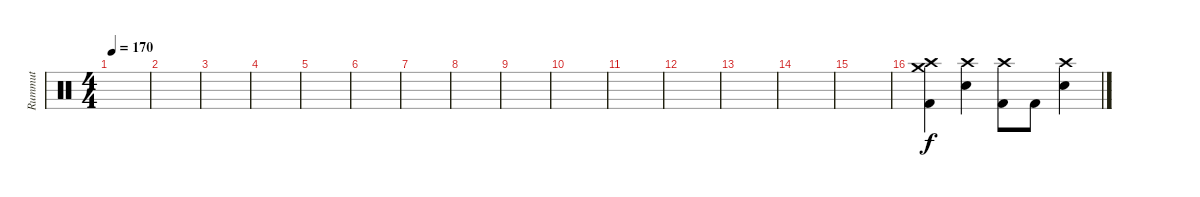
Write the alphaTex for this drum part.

\track ("Rummut" "Rummut") {instrument percussion}
\staff {score}
\articulation defaults
\ts (4 4)
\tempo 170
\clef neutral
\ks c
|
|
|
|
|
|
|
|
|
|
|
|
|
|
|
("Crash high (hit)" "Crash medium (hit)" "Kick (hit) 2").4 ("Crash high (hit)" "Electric Snare (hit)").4 ("Crash high (hit)" "Kick (hit) 2").8 "Kick (hit) 2".8 ("Crash high (hit)" "Electric Snare (hit)").4
